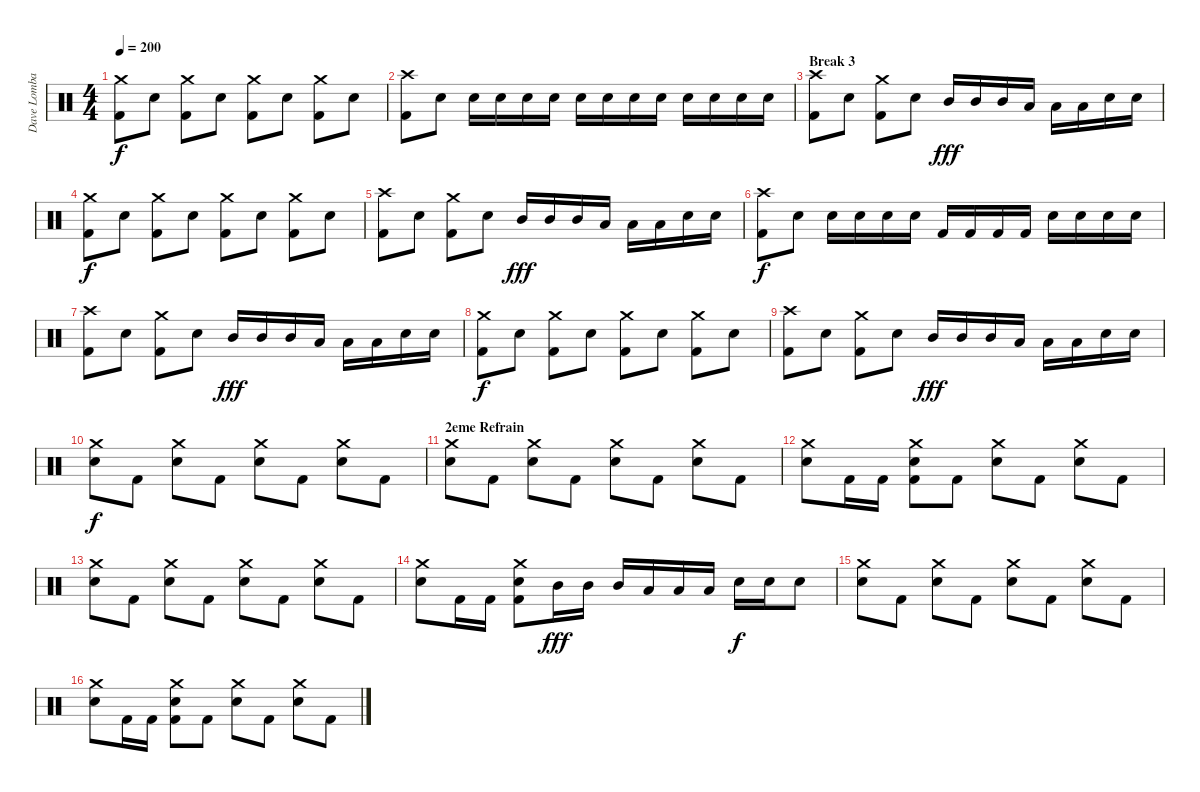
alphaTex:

\track ("Dave Lombardo - Drums" "Dave Lomba") {instrument percussion}
\staff {score}
\articulation defaults
\ts (4 4)
\tempo 200
\clef neutral
\ks c
("Crash medium (hit)" "Kick (hit) 2").8{dy f} "Electric Snare (hit)".8 ("Crash medium (hit)" "Kick (hit) 2").8 "Electric Snare (hit)".8 ("Crash medium (hit)" "Kick (hit) 2").8 "Electric Snare (hit)".8 ("Crash medium (hit)" "Kick (hit) 2").8 "Electric Snare (hit)".8 |
("Crash high (hit)" "Kick (hit) 2").8 "Electric Snare (hit)".8 "Electric Snare (hit)".16 "Electric Snare (hit)".16 "Electric Snare (hit)".16 "Electric Snare (hit)".16 "Electric Snare (hit)".16 "Electric Snare (hit)".16 "Electric Snare (hit)".16 "Electric Snare (hit)".16 "Electric Snare (hit)".16 "Electric Snare (hit)".16 "Electric Snare (hit)".16 "Electric Snare (hit)".16 |
\section ("" "Break 3")
("Crash high (hit)" "Kick (hit) 2").8 "Electric Snare (hit)".8 ("Crash medium (hit)" "Kick (hit) 2").8 "Electric Snare (hit)".8 "Mid Tom (hit)".16{dy fff} "Mid Tom (hit)".16 "Mid Tom (hit)".16 "Low Tom (hit)".16 "Low Tom (hit)".16 "Low Tom (hit)".16 "Electric Snare (hit)".16 "Electric Snare (hit)".16 |
("Crash medium (hit)" "Kick (hit) 2").8{dy f} "Electric Snare (hit)".8 ("Crash medium (hit)" "Kick (hit) 2").8 "Electric Snare (hit)".8 ("Crash medium (hit)" "Kick (hit) 2").8 "Electric Snare (hit)".8 ("Crash medium (hit)" "Kick (hit) 2").8 "Electric Snare (hit)".8 |
("Crash high (hit)" "Kick (hit) 2").8 "Electric Snare (hit)".8 ("Crash medium (hit)" "Kick (hit) 2").8 "Electric Snare (hit)".8 "Mid Tom (hit)".16{dy fff} "Mid Tom (hit)".16 "Mid Tom (hit)".16 "Low Tom (hit)".16 "Low Tom (hit)".16 "Low Tom (hit)".16 "Electric Snare (hit)".16 "Electric Snare (hit)".16 |
("Crash high (hit)" "Kick (hit) 2").8{dy f} "Electric Snare (hit)".8 "Electric Snare (hit)".16 "Electric Snare (hit)".16 "Electric Snare (hit)".16 "Electric Snare (hit)".16 "Kick (hit) 2".16 "Kick (hit) 2".16 "Kick (hit) 2".16 "Kick (hit) 2".16 "Electric Snare (hit)".16 "Electric Snare (hit)".16 "Electric Snare (hit)".16 "Electric Snare (hit)".16 |
("Crash high (hit)" "Kick (hit) 2").8 "Electric Snare (hit)".8 ("Crash medium (hit)" "Kick (hit) 2").8 "Electric Snare (hit)".8 "Mid Tom (hit)".16{dy fff} "Mid Tom (hit)".16 "Mid Tom (hit)".16 "Low Tom (hit)".16 "Low Tom (hit)".16 "Low Tom (hit)".16 "Electric Snare (hit)".16 "Electric Snare (hit)".16 |
("Crash medium (hit)" "Kick (hit) 2").8{dy f} "Electric Snare (hit)".8 ("Crash medium (hit)" "Kick (hit) 2").8 "Electric Snare (hit)".8 ("Crash medium (hit)" "Kick (hit) 2").8 "Electric Snare (hit)".8 ("Crash medium (hit)" "Kick (hit) 2").8 "Electric Snare (hit)".8 |
("Crash high (hit)" "Kick (hit) 2").8 "Electric Snare (hit)".8 ("Crash medium (hit)" "Kick (hit) 2").8 "Electric Snare (hit)".8 "Mid Tom (hit)".16{dy fff} "Mid Tom (hit)".16 "Mid Tom (hit)".16 "Low Tom (hit)".16 "Low Tom (hit)".16 "Low Tom (hit)".16 "Electric Snare (hit)".16 "Electric Snare (hit)".16 |
("Crash medium (hit)" "Electric Snare (hit)").8{dy f} "Kick (hit) 2".8 ("Crash medium (hit)" "Electric Snare (hit)").8 "Kick (hit) 2".8 ("Crash medium (hit)" "Electric Snare (hit)").8 "Kick (hit) 2".8 ("Crash medium (hit)" "Electric Snare (hit)").8 "Kick (hit) 2".8 |
\section ("" "2eme Refrain")
("Crash medium (hit)" "Electric Snare (hit)").8 "Kick (hit) 2".8 ("Crash medium (hit)" "Electric Snare (hit)").8 "Kick (hit) 2".8 ("Crash medium (hit)" "Electric Snare (hit)").8 "Kick (hit) 2".8 ("Crash medium (hit)" "Electric Snare (hit)").8 "Kick (hit) 2".8 |
("Crash medium (hit)" "Electric Snare (hit)").8 "Kick (hit) 2".16 "Kick (hit) 2".16 ("Crash medium (hit)" "Electric Snare (hit)" "Kick (hit) 2").8 "Kick (hit) 2".8 ("Crash medium (hit)" "Electric Snare (hit)").8 "Kick (hit) 2".8 ("Crash medium (hit)" "Electric Snare (hit)").8 "Kick (hit) 2".8 |
("Crash medium (hit)" "Electric Snare (hit)").8 "Kick (hit) 2".8 ("Crash medium (hit)" "Electric Snare (hit)").8 "Kick (hit) 2".8 ("Crash medium (hit)" "Electric Snare (hit)").8 "Kick (hit) 2".8 ("Crash medium (hit)" "Electric Snare (hit)").8 "Kick (hit) 2".8 |
("Crash medium (hit)" "Electric Snare (hit)").8 "Kick (hit) 2".16 "Kick (hit) 2".16 ("Crash medium (hit)" "Electric Snare (hit)" "Kick (hit) 2").8 "Mid Tom (hit)".16{dy fff} "Mid Tom (hit)".16 "Mid Tom (hit)".16 "Low Tom (hit)".16 "Low Tom (hit)".16 "Low Tom (hit)".16 "Electric Snare (hit)".16{dy f} "Electric Snare (hit)".16 "Electric Snare (hit)".8 |
("Crash medium (hit)" "Electric Snare (hit)").8 "Kick (hit) 2".8 ("Crash medium (hit)" "Electric Snare (hit)").8 "Kick (hit) 2".8 ("Crash medium (hit)" "Electric Snare (hit)").8 "Kick (hit) 2".8 ("Crash medium (hit)" "Electric Snare (hit)").8 "Kick (hit) 2".8 |
("Crash medium (hit)" "Electric Snare (hit)").8 "Kick (hit) 2".16 "Kick (hit) 2".16 ("Crash medium (hit)" "Electric Snare (hit)" "Kick (hit) 2").8 "Kick (hit) 2".8 ("Crash medium (hit)" "Electric Snare (hit)").8 "Kick (hit) 2".8 ("Crash medium (hit)" "Electric Snare (hit)").8 "Kick (hit) 2".8
